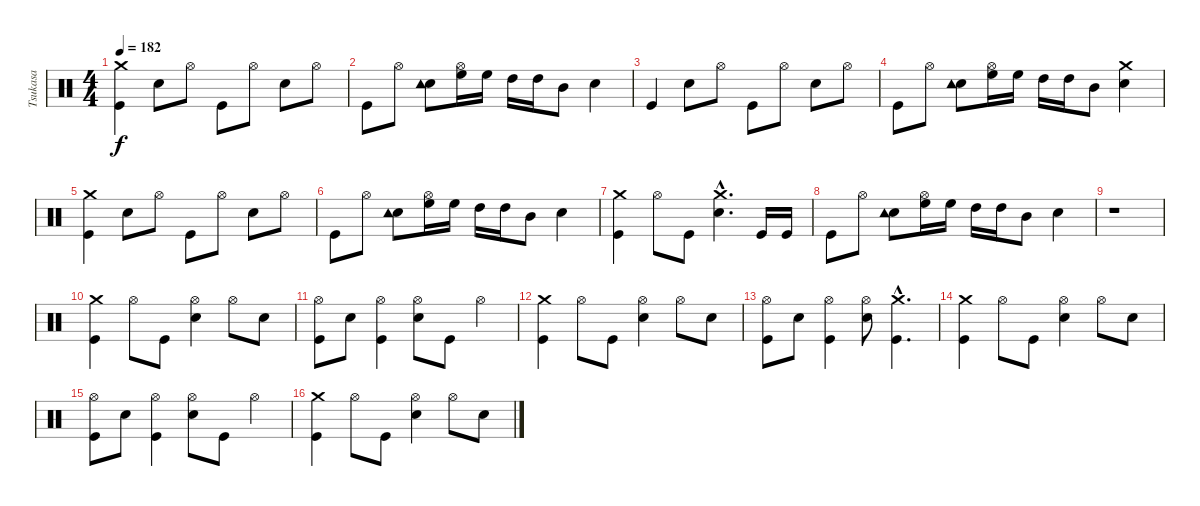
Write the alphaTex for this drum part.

\track ("Tsukasa" "Tsukasa") {instrument percussion}
\staff {score}
\articulation defaults
\ts (4 4)
\tempo 182
\clef neutral
\ks c
("Kick (hit)" "Crash medium (hit)").4{dy f} "Electric Snare (hit)".8 "Hi-Hat (open)".8 "Kick (hit)".8 "Hi-Hat (open)".8 "Electric Snare (hit)".8 "Hi-Hat (open)".8 |
"Kick (hit)".8 "Hi-Hat (open)".8 ("Electric Snare (hit)" "Tambourine (hit)").8 ("High Floor Tom (hit)" "Hi-Hat (open)").16 "High Floor Tom (hit)".16 "High Tom (hit)".16 "High Tom (hit)".16 "Mid Tom (hit)".8 "Electric Snare (hit)".4 |
"Kick (hit)".4 "Electric Snare (hit)".8 "Hi-Hat (open)".8 "Kick (hit)".8 "Hi-Hat (open)".8 "Electric Snare (hit)".8 "Hi-Hat (open)".8 |
"Kick (hit)".8 "Hi-Hat (open)".8 ("Electric Snare (hit)" "Tambourine (hit)").8 ("High Floor Tom (hit)" "Hi-Hat (open)").16 "High Floor Tom (hit)".16 "High Tom (hit)".16 "High Tom (hit)".16 "Mid Tom (hit)".8 ("Electric Snare (hit)" "Crash medium (hit)").4 |
("Kick (hit)" "Crash medium (hit)").4 "Electric Snare (hit)".8 "Hi-Hat (open)".8 "Kick (hit)".8 "Hi-Hat (open)".8 "Electric Snare (hit)".8 "Hi-Hat (open)".8 |
"Kick (hit)".8 "Hi-Hat (open)".8 ("Electric Snare (hit)" "Tambourine (hit)").8 ("High Floor Tom (hit)" "Hi-Hat (open)").16 "High Floor Tom (hit)".16 "High Tom (hit)".16 "High Tom (hit)".16 "Mid Tom (hit)".8 "Electric Snare (hit)".4 |
("Kick (hit)" "Crash medium (hit)").4 "Hi-Hat (open)".8 "Kick (hit)".8 ("Electric Snare (hit)"{hac} "Crash medium (hit)"{hac}).4{d} "Kick (hit)".16 "Kick (hit)".16 |
"Kick (hit)".8 "Hi-Hat (open)".8 ("Electric Snare (hit)" "Tambourine (hit)").8 ("High Floor Tom (hit)" "Hi-Hat (open)").16 "High Floor Tom (hit)".16 "High Tom (hit)".16 "High Tom (hit)".16 "Mid Tom (hit)".8 "Electric Snare (hit)".4 |
r.1 |
("Kick (hit)" "Crash medium (hit)").4 "Hi-Hat (open)".8 "Kick (hit)".8 ("Electric Snare (hit)" "Hi-Hat (open)").4 "Hi-Hat (open)".8 "Electric Snare (hit)".8 |
("Kick (hit)" "Hi-Hat (open)").8 "Electric Snare (hit)".8 ("Kick (hit)" "Hi-Hat (open)").4 ("Electric Snare (hit)" "Hi-Hat (open)").8 "Kick (hit)".8 "Hi-Hat (open)".4 |
("Kick (hit)" "Crash medium (hit)").4 "Hi-Hat (open)".8 "Kick (hit)".8 ("Electric Snare (hit)" "Hi-Hat (open)").4 "Hi-Hat (open)".8 "Electric Snare (hit)".8 |
("Kick (hit)" "Hi-Hat (open)").8 "Electric Snare (hit)".8 ("Kick (hit)" "Hi-Hat (open)").4 ("Electric Snare (hit)" "Hi-Hat (open)").8 ("Kick (hit)"{hac} "Crash medium (hit)"{hac}).4{d} |
("Kick (hit)" "Crash medium (hit)").4 "Hi-Hat (open)".8 "Kick (hit)".8 ("Electric Snare (hit)" "Hi-Hat (open)").4 "Hi-Hat (open)".8 "Electric Snare (hit)".8 |
("Kick (hit)" "Hi-Hat (open)").8 "Electric Snare (hit)".8 ("Kick (hit)" "Hi-Hat (open)").4 ("Electric Snare (hit)" "Hi-Hat (open)").8 "Kick (hit)".8 "Hi-Hat (open)".4 |
("Kick (hit)" "Crash medium (hit)").4 "Hi-Hat (open)".8 "Kick (hit)".8 ("Electric Snare (hit)" "Hi-Hat (open)").4 "Hi-Hat (open)".8 "Electric Snare (hit)".8
